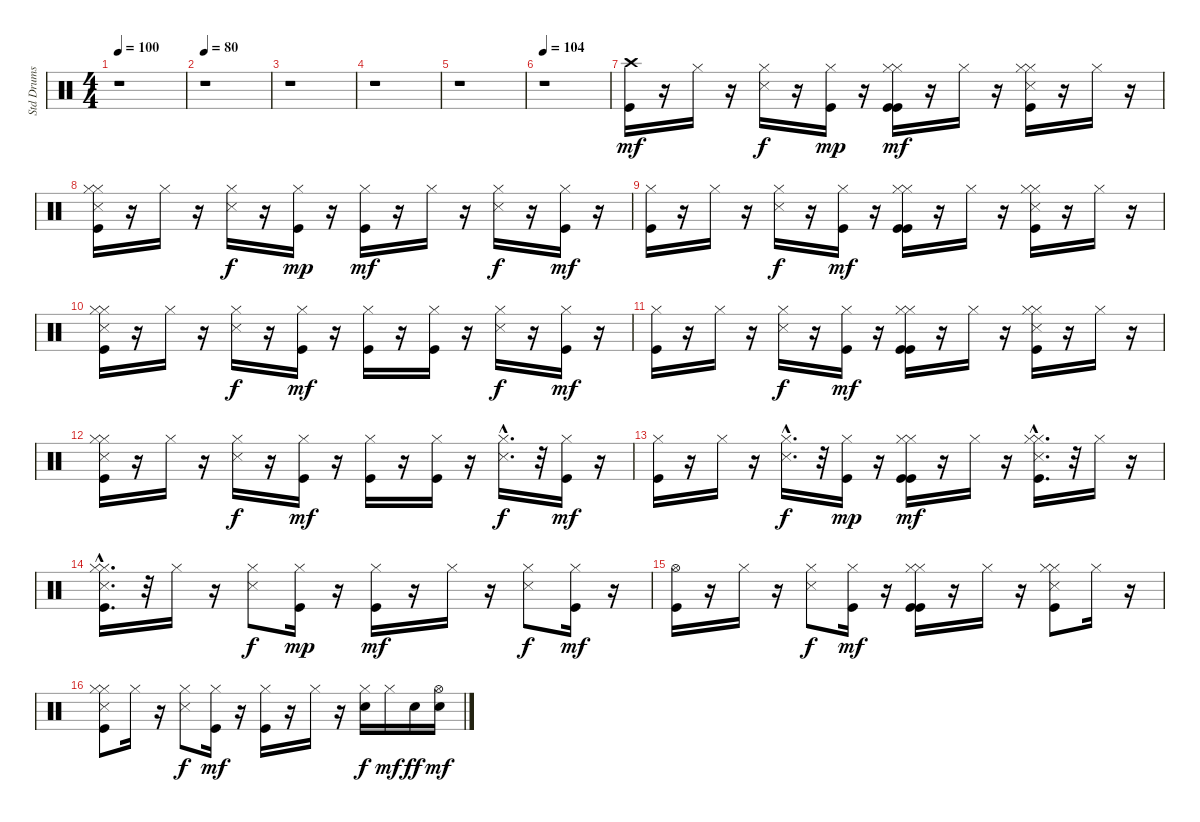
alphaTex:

\track ("Std Drums" "Std Drums") {instrument percussion}
\staff {score}
\articulation defaults
\ts (4 4)
\tempo 100
\clef neutral
\ks c
r.1{dy mf} |
\tempo 80
r.1 |
r.1 |
r.1 |
r.1 |
\tempo 104
r.1 |
("Kick (hit)" "Crash high (hit)").16 r.16 "Hi-Hat (closed)".16 r.16 ("Hi-Hat (closed)" "Snare (side stick) 3").16{dy f} r.16 ("Hi-Hat (closed)" "Kick (hit)").16{dy mp} r.16 ("Hi-Hat (closed)" "Kick (hit)" "Kick (hit)" "Hi-Hat (closed)").16{dy mf} r.16 "Hi-Hat (closed)".16 r.16 ("Kick (hit)" "Hi-Hat (closed)" "Snare (side stick) 3" "Hi-Hat (closed)").16 r.16 "Hi-Hat (closed)".16 r.16 |
("Snare (side stick) 3" "Hi-Hat (closed)" "Kick (hit)" "Hi-Hat (closed)").16 r.16 "Hi-Hat (closed)".16 r.16 ("Hi-Hat (closed)" "Snare (side stick) 3").16{dy f} r.16 ("Hi-Hat (closed)" "Kick (hit)").16{dy mp} r.16 ("Hi-Hat (closed)" "Kick (hit)").16{dy mf} r.16 "Hi-Hat (closed)".16 r.16 ("Snare (side stick) 3" "Hi-Hat (closed)").16{dy f} r.16 ("Kick (hit)" "Hi-Hat (closed)").16{dy mf} r.16 |
("Kick (hit)" "Hi-Hat (closed)").16 r.16 "Hi-Hat (closed)".16 r.16 ("Snare (side stick) 3" "Hi-Hat (closed)").16{dy f} r.16 ("Kick (hit)" "Hi-Hat (closed)").16{dy mf} r.16 ("Hi-Hat (closed)" "Kick (hit)" "Kick (hit)" "Hi-Hat (closed)").16 r.16 "Hi-Hat (closed)".16 r.16 ("Hi-Hat (closed)" "Snare (side stick) 3" "Kick (hit)" "Hi-Hat (closed)").16 r.16 "Hi-Hat (closed)".16 r.16 |
("Kick (hit)" "Hi-Hat (closed)" "Snare (side stick) 3" "Hi-Hat (closed)").16 r.16 "Hi-Hat (closed)".16 r.16 ("Snare (side stick) 3" "Hi-Hat (closed)").16{dy f} r.16 ("Kick (hit)" "Hi-Hat (closed)").16{dy mf} r.16 ("Hi-Hat (closed)" "Kick (hit)").16 r.16 ("Kick (hit)" "Hi-Hat (closed)").16 r.16 ("Snare (side stick) 3" "Hi-Hat (closed)").16{dy f} r.16 ("Kick (hit)" "Hi-Hat (closed)").16{dy mf} r.16 |
("Kick (hit)" "Hi-Hat (closed)").16 r.16 "Hi-Hat (closed)".16 r.16 ("Hi-Hat (closed)" "Snare (side stick) 3").16{dy f} r.16 ("Kick (hit)" "Hi-Hat (closed)").16{dy mf} r.16 ("Kick (hit)" "Hi-Hat (closed)" "Kick (hit)" "Hi-Hat (closed)").16 r.16 "Hi-Hat (closed)".16 r.16 ("Hi-Hat (closed)" "Snare (side stick) 3" "Hi-Hat (closed)" "Kick (hit)").16 r.16 "Hi-Hat (closed)".16 r.16 |
("Snare (side stick) 3" "Hi-Hat (closed)" "Kick (hit)" "Hi-Hat (closed)").16 r.16 "Hi-Hat (closed)".16 r.16 ("Hi-Hat (closed)" "Snare (side stick) 3").16{dy f} r.16 ("Kick (hit)" "Hi-Hat (closed)").16{dy mf} r.16 ("Kick (hit)" "Hi-Hat (closed)").16 r.16 ("Kick (hit)" "Hi-Hat (closed)").16 r.16 ("Hi-Hat (closed)" "Snare (side stick) 3"{hac}).16{d dy f} r.32 ("Kick (hit)" "Hi-Hat (closed)").16{dy mf} r.16 |
("Kick (hit)" "Hi-Hat (closed)").16 r.16 "Hi-Hat (closed)".16 r.16 ("Snare (side stick) 3"{hac} "Hi-Hat (closed)").16{d dy f} r.32 ("Hi-Hat (closed)" "Kick (hit)").16{dy mp} r.16 ("Hi-Hat (closed)" "Kick (hit)" "Kick (hit)" "Hi-Hat (closed)").16{dy mf} r.16 "Hi-Hat (closed)".16 r.16 ("Snare (side stick) 3"{hac} "Hi-Hat (closed)" "Kick (hit)" "Hi-Hat (closed)").16{d} r.32 "Hi-Hat (closed)".16 r.16 |
("Snare (side stick) 3"{hac} "Kick (hit)" "Hi-Hat (closed)" "Hi-Hat (closed)").16{d} r.32 "Hi-Hat (closed)".16 r.16 ("Snare (side stick) 3" "Hi-Hat (closed)").8{dy f} ("Hi-Hat (closed)" "Kick (hit)").16{dy mp} r.16 ("Hi-Hat (closed)" "Kick (hit)").16{dy mf} r.16 "Hi-Hat (closed)".16 r.16 ("Snare (side stick) 3" "Hi-Hat (closed)").8{dy f} ("Kick (hit)" "Hi-Hat (closed)").16{dy mf} r.16 |
("Kick (hit)" "Hi-Hat (open)").16 r.16 "Hi-Hat (closed)".16 r.16 ("Snare (side stick) 3" "Hi-Hat (closed)").8{dy f} ("Kick (hit)" "Hi-Hat (closed)").16{dy mf} r.16 ("Kick (hit)" "Hi-Hat (closed)" "Kick (hit)" "Hi-Hat (closed)").16 r.16 "Hi-Hat (closed)".16 r.16 ("Hi-Hat (closed)" "Snare (side stick) 3" "Kick (hit)" "Hi-Hat (closed)").8 "Hi-Hat (closed)".16 r.16 |
("Snare (side stick) 3" "Hi-Hat (closed)" "Kick (hit)" "Hi-Hat (closed)").8 "Hi-Hat (closed)".16 r.16 ("Snare (side stick) 3" "Hi-Hat (closed)").8{dy f} ("Kick (hit)" "Hi-Hat (closed)").16{dy mf} r.16 ("Kick (hit)" "Hi-Hat (closed)").16 r.16 "Hi-Hat (closed)".16 r.16 ("Hi-Hat (closed)" "Snare (hit) 2").16{dy f} "Hi-Hat (closed)".16{dy mf} "Snare (hit) 2".16{dy ff} ("Snare (hit) 2" "Hi-Hat (open)").16{dy mf}
